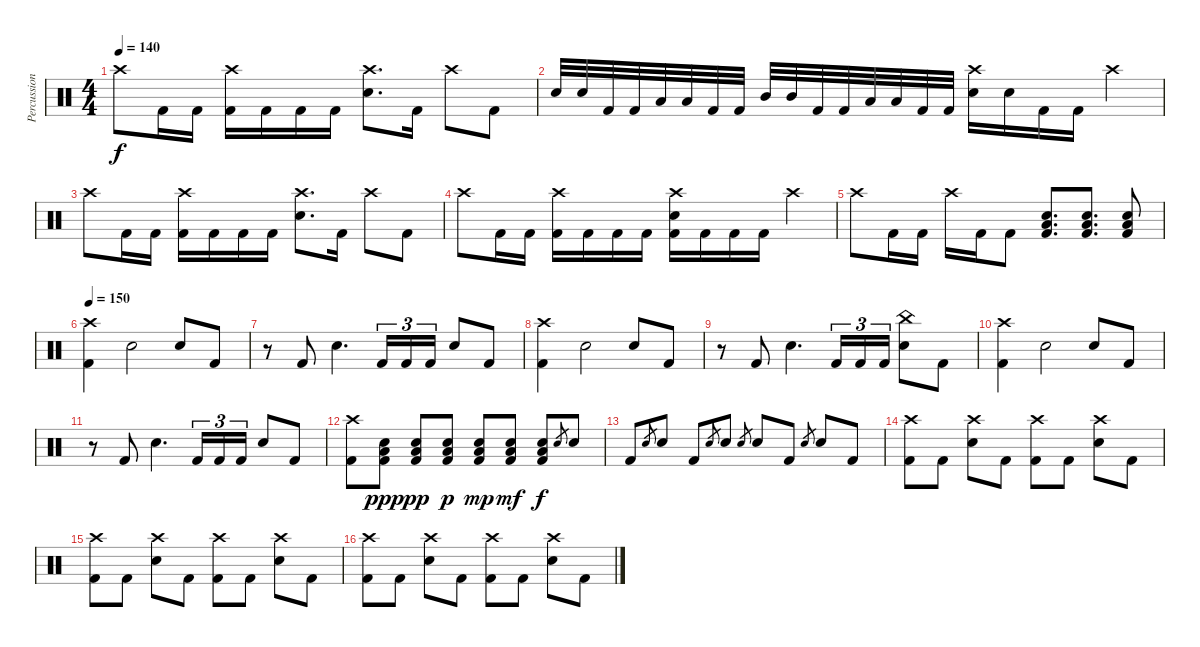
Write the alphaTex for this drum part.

\track ("Percussion" "Percussion") {instrument percussion}
\staff {score}
\articulation defaults
\ts (4 4)
\tempo 140
\clef neutral
\ks c "Crash high (hit)".8{dy f} "Kick (hit) 2".16 "Kick (hit) 2".16
("Crash high (hit)" "Kick (hit) 2").16 "Kick (hit) 2".16 "Kick (hit) 2".16 "Kick (hit) 2".16 ("Crash high (hit)" "Electric Snare (hit)").8{d} "Kick (hit) 2".16 "Crash high (hit)".8 "Kick (hit) 2".8 |
"Electric Snare (hit)".32 "Electric Snare (hit)".32 "Kick (hit) 2".32 "Kick (hit) 2".32 "Low Tom (hit)".32 "Low Tom (hit)".32 "Kick (hit) 2".32 "Kick (hit) 2".32 "Mid Tom (hit)".32 "Mid Tom (hit)".32 "Kick (hit) 2".32 "Kick (hit) 2".32 "Low Tom (hit)".32 "Low Tom (hit)".32 "Kick (hit) 2".32 "Kick (hit) 2".32 ("Crash high (hit)" "Electric Snare (hit)").16 "Electric Snare (hit)".16 "Kick (hit) 2".16 "Kick (hit) 2".16 "Crash high (hit)".4 |
"Crash high (hit)".8 "Kick (hit) 2".16 "Kick (hit) 2".16 ("Crash high (hit)" "Kick (hit) 2").16 "Kick (hit) 2".16 "Kick (hit) 2".16 "Kick (hit) 2".16 ("Crash high (hit)" "Electric Snare (hit)").8{d} "Kick (hit) 2".16 "Crash high (hit)".8 "Kick (hit) 2".8 |
"Crash high (hit)".8 "Kick (hit) 2".16 "Kick (hit) 2".16 ("Crash high (hit)" "Kick (hit) 2").16 "Kick (hit) 2".16 "Kick (hit) 2".16 "Kick (hit) 2".16 ("Crash high (hit)" "Electric Snare (hit)" "Kick (hit) 2").16 "Kick (hit) 2".16 "Kick (hit) 2".16 "Kick (hit) 2".16 "Crash high (hit)".4 |
"Crash high (hit)".8 "Kick (hit) 2".16 "Kick (hit) 2".16 "Crash high (hit)".16 "Kick (hit) 2".16 "Kick (hit) 2".8 ("Low Tom (hit)" "Electric Snare (hit)" "Kick (hit) 2").8{d} ("Low Tom (hit)" "Electric Snare (hit)" "Kick (hit) 2").8{d} ("Low Tom (hit)" "Electric Snare (hit)" "Kick (hit) 2").8 |
\tempo 150
("Crash high (hit)" "Kick (hit) 2").4 "Electric Snare (hit)".2 "Electric Snare (hit)".8 "Kick (hit) 2".8 |
r.8 "Kick (hit) 2".8 "Electric Snare (hit)".4{d} "Kick (hit) 2".16{tu (3 2)} "Kick (hit) 2".16{tu (3 2)} "Kick (hit) 2".16{tu (3 2)} "Electric Snare (hit)".8 "Kick (hit) 2".8 |
("Crash high (hit)" "Kick (hit) 2").4 "Electric Snare (hit)".2 "Electric Snare (hit)".8 "Kick (hit) 2".8 |
r.8 "Kick (hit) 2".8 "Electric Snare (hit)".4{d} "Kick (hit) 2".16{tu (3 2)} "Kick (hit) 2".16{tu (3 2)} "Kick (hit) 2".16{tu (3 2)} ("China (hit)" "Electric Snare (hit)").8 "Kick (hit) 2".8 |
("Crash high (hit)" "Kick (hit) 2").4 "Electric Snare (hit)".2 "Electric Snare (hit)".8 "Kick (hit) 2".8 |
r.8 "Kick (hit) 2".8 "Electric Snare (hit)".4{d} "Kick (hit) 2".16{tu (3 2)} "Kick (hit) 2".16{tu (3 2)} "Kick (hit) 2".16{tu (3 2)} "Electric Snare (hit)".8 "Kick (hit) 2".8 |
("Crash high (hit)" "Kick (hit) 2").8 ("Low Tom (hit)" "Electric Snare (hit)" "Kick (hit) 2").8{dy ppp} ("Low Tom (hit)" "Electric Snare (hit)" "Kick (hit) 2").8{dy pp} ("Low Tom (hit)" "Electric Snare (hit)" "Kick (hit) 2").8{dy p} ("Low Tom (hit)" "Electric Snare (hit)" "Kick (hit) 2").8{dy mp} ("Low Tom (hit)" "Electric Snare (hit)" "Kick (hit) 2").8{dy mf} ("Low Tom (hit)" "Electric Snare (hit)" "Kick (hit) 2").8{dy f} "Electric Snare (hit)".8{gr} "Electric Snare (hit)".8 |
"Kick (hit) 2".8 "Electric Snare (hit)".8{gr} "Electric Snare (hit)".8 "Kick (hit) 2".8 "Electric Snare (hit)".8{gr} "Electric Snare (hit)".8 "Electric Snare (hit)".8{gr} "Electric Snare (hit)".8 "Kick (hit) 2".8 "Electric Snare (hit)".8{gr} "Electric Snare (hit)".8 "Kick (hit) 2".8 |
("Crash high (hit)" "Kick (hit) 2").8 "Kick (hit) 2".8 ("Crash high (hit)" "Electric Snare (hit)").8 "Kick (hit) 2".8 ("Crash high (hit)" "Kick (hit) 2").8 "Kick (hit) 2".8 ("Crash high (hit)" "Electric Snare (hit)").8 "Kick (hit) 2".8 |
("Crash high (hit)" "Kick (hit) 2").8 "Kick (hit) 2".8 ("Crash high (hit)" "Electric Snare (hit)").8 "Kick (hit) 2".8 ("Crash high (hit)" "Kick (hit) 2").8 "Kick (hit) 2".8 ("Crash high (hit)" "Electric Snare (hit)").8 "Kick (hit) 2".8 |
("Crash high (hit)" "Kick (hit) 2").8 "Kick (hit) 2".8 ("Crash high (hit)" "Electric Snare (hit)").8 "Kick (hit) 2".8 ("Crash high (hit)" "Kick (hit) 2").8 "Kick (hit) 2".8 ("Crash high (hit)" "Electric Snare (hit)").8 "Kick (hit) 2".8
